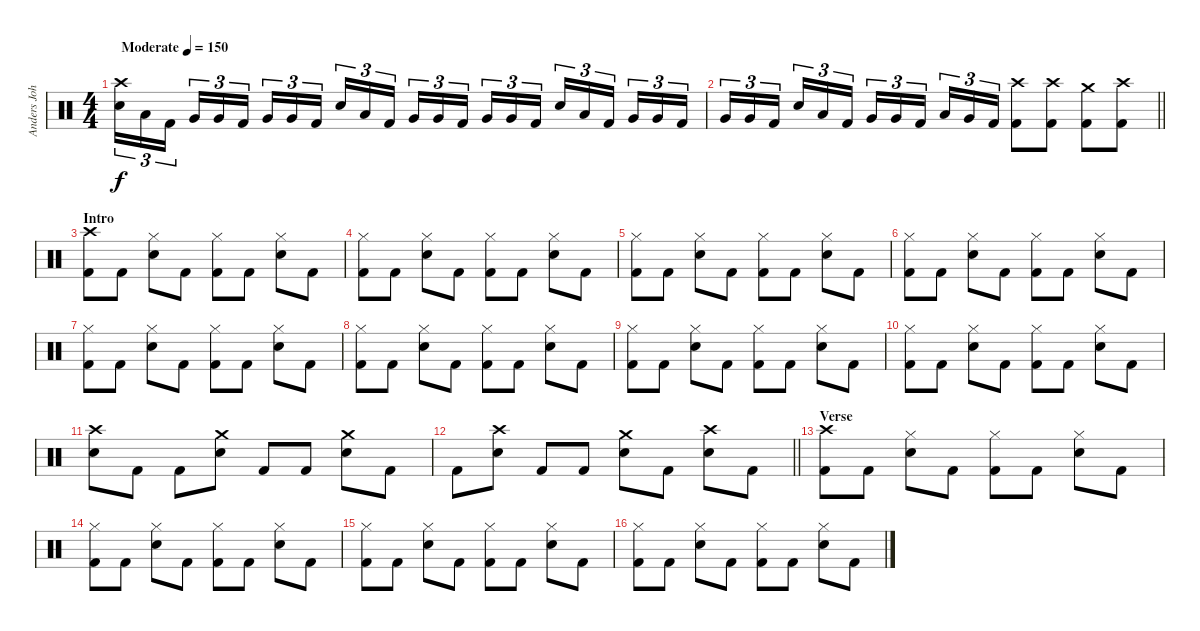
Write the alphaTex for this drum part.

\track ("Anders Johansson" "Anders Joh") {instrument percussion}
\staff {score}
\articulation defaults
\ts (4 4)
\tempo (150 "Moderate")
\clef neutral
\ks c
("Crash high (hit)" "Snare (hit) 2").16{tu (3 2) dy f} "Low Tom (hit)".16{tu (3 2)} "Kick (hit) 2".16{tu (3 2) beam splitsecondary} "Very Low Tom (hit)".16{tu (3 2)} "Very Low Tom (hit)".16{tu (3 2)} "Kick (hit) 2".16{tu (3 2)} "Very Low Tom (hit)".16{tu (3 2)} "Very Low Tom (hit)".16{tu (3 2)} "Kick (hit) 2".16{tu (3 2) beam splitsecondary} "Snare (hit) 2".16{tu (3 2)} "Low Tom (hit)".16{tu (3 2)} "Kick (hit) 2".16{tu (3 2)} "Very Low Tom (hit)".16{tu (3 2)} "Very Low Tom (hit)".16{tu (3 2)} "Kick (hit) 2".16{tu (3 2) beam splitsecondary} "Very Low Tom (hit)".16{tu (3 2)} "Very Low Tom (hit)".16{tu (3 2)} "Kick (hit) 2".16{tu (3 2)} "Snare (hit) 2".16{tu (3 2)} "Low Tom (hit)".16{tu (3 2)} "Kick (hit) 2".16{tu (3 2) beam splitsecondary} "Very Low Tom (hit)".16{tu (3 2)} "Very Low Tom (hit)".16{tu (3 2)} "Kick (hit) 2".16{tu (3 2)} |
\barLineRight lightlight "Very Low Tom (hit)".16{tu (3 2)} "Very Low Tom (hit)".16{tu (3 2)} "Kick (hit) 2".16{tu (3 2) beam splitsecondary} "Snare (hit) 2".16{tu (3 2)} "Low Tom (hit)".16{tu (3 2)} "Kick (hit) 2".16{tu (3 2)} "Very Low Tom (hit)".16{tu (3 2)} "Very Low Tom (hit)".16{tu (3 2)} "Kick (hit) 2".16{tu (3 2) beam splitsecondary} "Low Tom (hit)".16{tu (3 2)} "Very Low Tom (hit)".16{tu (3 2)} "Kick (hit) 2".16{tu (3 2)}
("Crash high (hit)" "Kick (hit) 2").8 ("Crash high (hit)" "Kick (hit) 2").8 ("Crash medium (hit)" "Kick (hit) 2").8 ("Crash high (hit)" "Kick (hit) 2").8 |
\section ("" "Intro")
("Crash high (hit)" "Kick (hit) 2").8 "Kick (hit) 2".8 ("Hi-Hat (closed)" "Snare (hit) 2").8 "Kick (hit) 2".8 ("Hi-Hat (closed)" "Kick (hit) 2").8 "Kick (hit) 2".8 ("Hi-Hat (closed)" "Snare (hit) 2").8 "Kick (hit) 2".8 |
("Hi-Hat (closed)" "Kick (hit) 2").8 "Kick (hit) 2".8 ("Hi-Hat (closed)" "Snare (hit) 2").8 "Kick (hit) 2".8 ("Hi-Hat (closed)" "Kick (hit) 2").8 "Kick (hit) 2".8 ("Hi-Hat (closed)" "Snare (hit) 2").8 "Kick (hit) 2".8 |
("Hi-Hat (closed)" "Kick (hit) 2").8 "Kick (hit) 2".8 ("Hi-Hat (closed)" "Snare (hit) 2").8 "Kick (hit) 2".8 ("Hi-Hat (closed)" "Kick (hit) 2").8 "Kick (hit) 2".8 ("Hi-Hat (closed)" "Snare (hit) 2").8 "Kick (hit) 2".8 |
("Hi-Hat (closed)" "Kick (hit) 2").8 "Kick (hit) 2".8 ("Hi-Hat (closed)" "Snare (hit) 2").8 "Kick (hit) 2".8 ("Hi-Hat (closed)" "Kick (hit) 2").8 "Kick (hit) 2".8 ("Hi-Hat (closed)" "Snare (hit) 2").8 "Kick (hit) 2".8 |
("Hi-Hat (closed)" "Kick (hit) 2").8 "Kick (hit) 2".8 ("Hi-Hat (closed)" "Snare (hit) 2").8 "Kick (hit) 2".8 ("Hi-Hat (closed)" "Kick (hit) 2").8 "Kick (hit) 2".8 ("Hi-Hat (closed)" "Snare (hit) 2").8 "Kick (hit) 2".8 |
("Hi-Hat (closed)" "Kick (hit) 2").8 "Kick (hit) 2".8 ("Hi-Hat (closed)" "Snare (hit) 2").8 "Kick (hit) 2".8 ("Hi-Hat (closed)" "Kick (hit) 2").8 "Kick (hit) 2".8 ("Hi-Hat (closed)" "Snare (hit) 2").8 "Kick (hit) 2".8 |
("Hi-Hat (closed)" "Kick (hit) 2").8 "Kick (hit) 2".8 ("Hi-Hat (closed)" "Snare (hit) 2").8 "Kick (hit) 2".8 ("Hi-Hat (closed)" "Kick (hit) 2").8 "Kick (hit) 2".8 ("Hi-Hat (closed)" "Snare (hit) 2").8 "Kick (hit) 2".8 |
("Hi-Hat (closed)" "Kick (hit) 2").8 "Kick (hit) 2".8 ("Hi-Hat (closed)" "Snare (hit) 2").8 "Kick (hit) 2".8 ("Hi-Hat (closed)" "Kick (hit) 2").8 "Kick (hit) 2".8 ("Hi-Hat (closed)" "Snare (hit) 2").8 "Kick (hit) 2".8 |
("Crash high (hit)" "Snare (hit) 2").8 "Kick (hit) 2".8 "Kick (hit) 2".8 ("Crash medium (hit)" "Snare (hit) 2").8 "Kick (hit) 2".8 "Kick (hit) 2".8 ("Crash medium (hit)" "Snare (hit) 2").8 "Kick (hit) 2".8 |
\barLineRight lightlight "Kick (hit) 2".8
("Crash high (hit)" "Snare (hit) 2").8 "Kick (hit) 2".8 "Kick (hit) 2".8 ("Crash medium (hit)" "Snare (hit) 2").8 "Kick (hit) 2".8 ("Crash high (hit)" "Snare (hit) 2").8 "Kick (hit) 2".8 |
\section ("" "Verse")
("Crash high (hit)" "Kick (hit) 2").8 "Kick (hit) 2".8 ("Hi-Hat (closed)" "Snare (hit) 2").8 "Kick (hit) 2".8 ("Hi-Hat (closed)" "Kick (hit) 2").8 "Kick (hit) 2".8 ("Hi-Hat (closed)" "Snare (hit) 2").8 "Kick (hit) 2".8 |
("Hi-Hat (closed)" "Kick (hit) 2").8 "Kick (hit) 2".8 ("Hi-Hat (closed)" "Snare (hit) 2").8 "Kick (hit) 2".8 ("Hi-Hat (closed)" "Kick (hit) 2").8 "Kick (hit) 2".8 ("Hi-Hat (closed)" "Snare (hit) 2").8 "Kick (hit) 2".8 |
("Hi-Hat (closed)" "Kick (hit) 2").8 "Kick (hit) 2".8 ("Hi-Hat (closed)" "Snare (hit) 2").8 "Kick (hit) 2".8 ("Hi-Hat (closed)" "Kick (hit) 2").8 "Kick (hit) 2".8 ("Hi-Hat (closed)" "Snare (hit) 2").8 "Kick (hit) 2".8 |
("Hi-Hat (closed)" "Kick (hit) 2").8 "Kick (hit) 2".8 ("Hi-Hat (closed)" "Snare (hit) 2").8 "Kick (hit) 2".8 ("Hi-Hat (closed)" "Kick (hit) 2").8 "Kick (hit) 2".8 ("Hi-Hat (closed)" "Snare (hit) 2").8 "Kick (hit) 2".8
